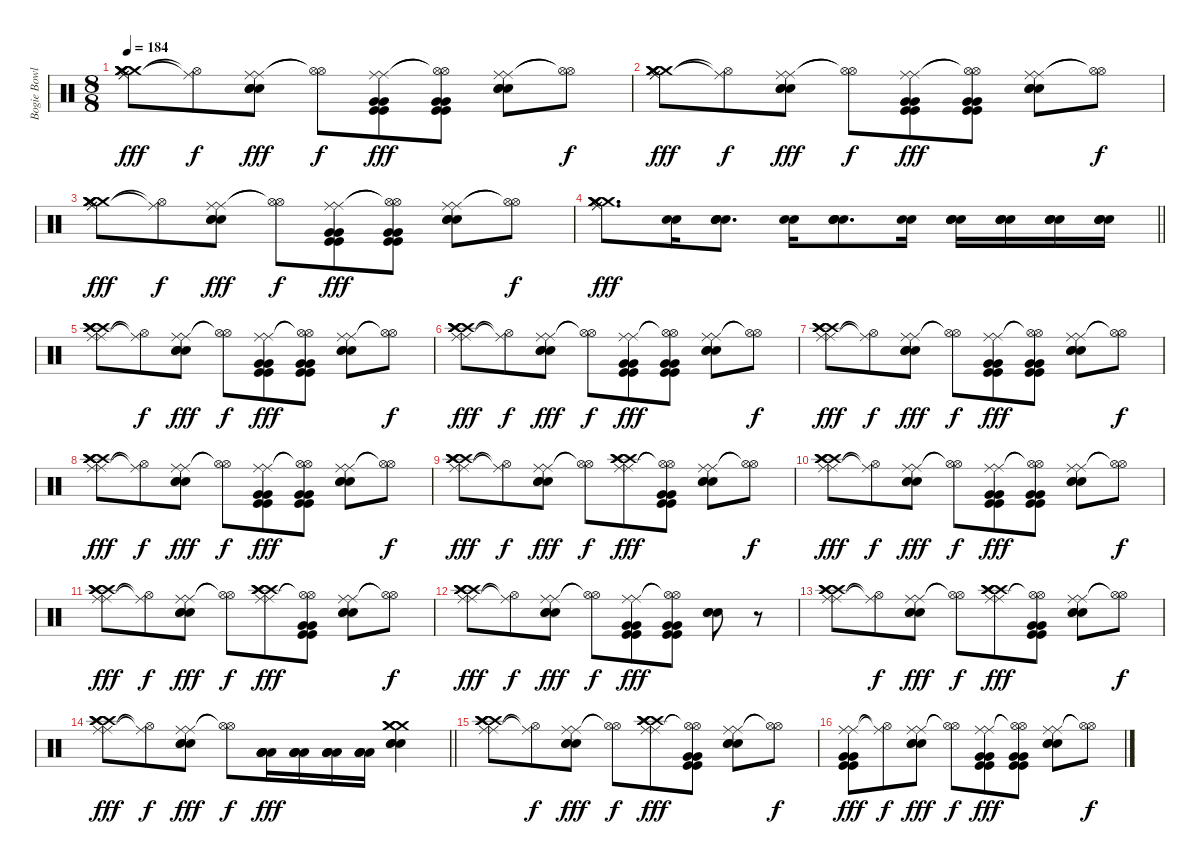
\track ("Bogie Bowles Drums" "Bogie Bowl") {instrument percussion}
\staff {score}
\articulation defaults
\ts (8 8)
\tempo 184
\clef neutral
\ks c
("Ride (middle)" "Ride (middle)" "Crash medium (hit)" "Crash medium (hit)" "Crash medium (hit)" "Crash medium (hit)").8{dy fff} ("Hi-Hat (open)"{t} "Ride (middle)"{t}).8{dy f} ("Ride (middle)" "Ride (middle)" "Snare (hit) 2" "Snare (hit) 2" "Snare (hit) 2").8{dy fff} ("Hi-Hat (open)"{t} "Hi-Hat (open)"{t}).8{dy f} ("Ride (middle)" "Ride (middle)" "Kick (hit)" "Kick (hit)" "Very Low Tom (hit)" "Very Low Tom (hit)").8{dy fff} ("Hi-Hat (open)"{t} "Hi-Hat (open)"{t} "Kick (hit)" "Kick (hit)" "Very Low Tom (hit)" "Very Low Tom (hit)").8 ("Ride (middle)" "Ride (middle)" "Snare (hit) 2" "Snare (hit) 2" "Snare (hit) 2").8 ("Hi-Hat (open)"{t} "Hi-Hat (open)"{t}).8{dy f} |
("Ride (middle)" "Ride (middle)" "Crash medium (hit)" "Crash medium (hit)" "Crash medium (hit)" "Crash medium (hit)").8{dy fff} ("Hi-Hat (open)"{t} "Ride (middle)"{t}).8{dy f} ("Ride (middle)" "Ride (middle)" "Snare (hit) 2" "Snare (hit) 2" "Snare (hit) 2").8{dy fff} ("Hi-Hat (open)"{t} "Hi-Hat (open)"{t}).8{dy f} ("Ride (middle)" "Ride (middle)" "Kick (hit)" "Kick (hit)" "Very Low Tom (hit)" "Very Low Tom (hit)").8{dy fff} ("Hi-Hat (open)"{t} "Hi-Hat (open)"{t} "Kick (hit)" "Kick (hit)" "Very Low Tom (hit)" "Very Low Tom (hit)").8 ("Ride (middle)" "Ride (middle)" "Snare (hit) 2" "Snare (hit) 2" "Snare (hit) 2").8 ("Hi-Hat (open)"{t} "Hi-Hat (open)"{t}).8{dy f} |
("Ride (middle)" "Ride (middle)" "Crash medium (hit)" "Crash medium (hit)" "Crash medium (hit)" "Crash medium (hit)").8{dy fff} ("Hi-Hat (open)"{t} "Ride (middle)"{t}).8{dy f} ("Ride (middle)" "Ride (middle)" "Snare (hit) 2" "Snare (hit) 2" "Snare (hit) 2").8{dy fff} ("Hi-Hat (open)"{t} "Hi-Hat (open)"{t}).8{dy f} ("Ride (middle)" "Ride (middle)" "Kick (hit)" "Kick (hit)" "Very Low Tom (hit)" "Very Low Tom (hit)").8{dy fff} ("Hi-Hat (open)"{t} "Hi-Hat (open)"{t} "Kick (hit)" "Kick (hit)" "Very Low Tom (hit)" "Very Low Tom (hit)").8 ("Ride (middle)" "Ride (middle)" "Snare (hit) 2" "Snare (hit) 2" "Snare (hit) 2").8 ("Hi-Hat (open)"{t} "Hi-Hat (open)"{t}).8{dy f} |
\barLineRight lightlight
("Ride (middle)" "Ride (middle)" "Crash medium (hit)" "Crash medium (hit)" "Crash medium (hit)" "Crash medium (hit)").8{d dy fff} ("Snare (hit) 2" "Snare (hit) 2").16 ("Snare (hit) 2" "Snare (hit) 2" "Snare (hit) 2" "Snare (hit) 2").8{d} ("Snare (hit) 2" "Snare (hit) 2").16 ("Snare (hit) 2" "Snare (hit) 2" "Snare (hit) 2" "Snare (hit) 2").8{d} ("Snare (hit) 2" "Snare (hit) 2").16 ("Snare (hit) 2" "Snare (hit) 2" "Snare (hit) 2" "Snare (hit) 2").16 ("Snare (hit) 2" "Snare (hit) 2" "Snare (hit) 2" "Snare (hit) 2").16 ("Snare (hit) 2" "Snare (hit) 2" "Snare (hit) 2" "Snare (hit) 2").16 ("Snare (hit) 2" "Snare (hit) 2" "Snare (hit) 2" "Snare (hit) 2").16 |
("Ride (middle)" "Ride (middle)" "Crash high (hit)" "Crash high (hit)" "Crash high (hit)" "Crash high (hit)").8 ("Hi-Hat (open)"{t} "Ride (middle)"{t}).8{dy f} ("Ride (middle)" "Ride (middle)" "Snare (hit) 2" "Snare (hit) 2" "Snare (hit) 2").8{dy fff} ("Hi-Hat (open)"{t} "Hi-Hat (open)"{t}).8{dy f} ("Ride (middle)" "Ride (middle)" "Kick (hit)" "Kick (hit)" "Very Low Tom (hit)" "Very Low Tom (hit)").8{dy fff} ("Hi-Hat (open)"{t} "Hi-Hat (open)"{t} "Kick (hit)" "Kick (hit)" "Very Low Tom (hit)" "Very Low Tom (hit)").8 ("Ride (middle)" "Ride (middle)" "Snare (hit) 2" "Snare (hit) 2" "Snare (hit) 2").8 ("Hi-Hat (open)"{t} "Hi-Hat (open)"{t}).8{dy f} |
("Ride (middle)" "Ride (middle)" "Crash high (hit)" "Crash high (hit)" "Crash high (hit)" "Crash high (hit)").8{dy fff} ("Hi-Hat (open)"{t} "Ride (middle)"{t}).8{dy f} ("Ride (middle)" "Ride (middle)" "Snare (hit) 2" "Snare (hit) 2" "Snare (hit) 2").8{dy fff} ("Hi-Hat (open)"{t} "Hi-Hat (open)"{t}).8{dy f} ("Ride (middle)" "Ride (middle)" "Kick (hit)" "Kick (hit)" "Very Low Tom (hit)" "Very Low Tom (hit)").8{dy fff} ("Hi-Hat (open)"{t} "Hi-Hat (open)"{t} "Kick (hit)" "Kick (hit)" "Very Low Tom (hit)" "Very Low Tom (hit)").8 ("Ride (middle)" "Ride (middle)" "Snare (hit) 2" "Snare (hit) 2" "Snare (hit) 2").8 ("Hi-Hat (open)"{t} "Hi-Hat (open)"{t}).8{dy f} |
("Ride (middle)" "Ride (middle)" "Crash high (hit)" "Crash high (hit)" "Crash high (hit)" "Crash high (hit)").8{dy fff} ("Hi-Hat (open)"{t} "Ride (middle)"{t}).8{dy f} ("Ride (middle)" "Ride (middle)" "Snare (hit) 2" "Snare (hit) 2" "Snare (hit) 2").8{dy fff} ("Hi-Hat (open)"{t} "Hi-Hat (open)"{t}).8{dy f} ("Ride (middle)" "Ride (middle)" "Kick (hit)" "Kick (hit)" "Very Low Tom (hit)" "Very Low Tom (hit)").8{dy fff} ("Hi-Hat (open)"{t} "Hi-Hat (open)"{t} "Kick (hit)" "Kick (hit)" "Very Low Tom (hit)" "Very Low Tom (hit)").8 ("Ride (middle)" "Ride (middle)" "Snare (hit) 2" "Snare (hit) 2" "Snare (hit) 2").8 ("Hi-Hat (open)"{t} "Hi-Hat (open)"{t}).8{dy f} |
("Ride (middle)" "Ride (middle)" "Crash high (hit)" "Crash high (hit)" "Crash high (hit)" "Crash high (hit)").8{dy fff} ("Hi-Hat (open)"{t} "Ride (middle)"{t}).8{dy f} ("Ride (middle)" "Ride (middle)" "Snare (hit) 2" "Snare (hit) 2" "Snare (hit) 2").8{dy fff} ("Hi-Hat (open)"{t} "Hi-Hat (open)"{t}).8{dy f} ("Ride (middle)" "Ride (middle)" "Kick (hit)" "Kick (hit)" "Very Low Tom (hit)" "Very Low Tom (hit)").8{dy fff} ("Hi-Hat (open)"{t} "Hi-Hat (open)"{t} "Kick (hit)" "Kick (hit)" "Very Low Tom (hit)" "Very Low Tom (hit)").8 ("Ride (middle)" "Ride (middle)" "Snare (hit) 2" "Snare (hit) 2" "Snare (hit) 2").8 ("Hi-Hat (open)"{t} "Hi-Hat (open)"{t}).8{dy f} |
("Ride (middle)" "Ride (middle)" "Crash high (hit)" "Crash high (hit)" "Crash high (hit)" "Crash high (hit)").8{dy fff} ("Hi-Hat (open)"{t} "Ride (middle)"{t}).8{dy f} ("Ride (middle)" "Ride (middle)" "Snare (hit) 2" "Snare (hit) 2" "Snare (hit) 2").8{dy fff} ("Hi-Hat (open)"{t} "Hi-Hat (open)"{t}).8{dy f} ("Ride (middle)" "Ride (middle)" "Crash high (hit)" "Crash high (hit)" "Crash high (hit)" "Crash high (hit)").8{dy fff} ("Hi-Hat (open)"{t} "Hi-Hat (open)"{t} "Kick (hit)" "Kick (hit)" "Very Low Tom (hit)" "Very Low Tom (hit)").8 ("Ride (middle)" "Ride (middle)" "Snare (hit) 2" "Snare (hit) 2" "Snare (hit) 2").8 ("Hi-Hat (open)"{t} "Hi-Hat (open)"{t}).8{dy f} |
("Ride (middle)" "Ride (middle)" "Crash high (hit)" "Crash high (hit)" "Crash high (hit)" "Crash high (hit)").8{dy fff} ("Hi-Hat (open)"{t} "Ride (middle)"{t}).8{dy f} ("Ride (middle)" "Ride (middle)" "Snare (hit) 2" "Snare (hit) 2" "Snare (hit) 2").8{dy fff} ("Hi-Hat (open)"{t} "Hi-Hat (open)"{t}).8{dy f} ("Ride (middle)" "Ride (middle)" "Kick (hit)" "Kick (hit)" "Very Low Tom (hit)" "Very Low Tom (hit)").8{dy fff} ("Hi-Hat (open)"{t} "Hi-Hat (open)"{t} "Kick (hit)" "Kick (hit)" "Very Low Tom (hit)" "Very Low Tom (hit)").8 ("Ride (middle)" "Ride (middle)" "Snare (hit) 2" "Snare (hit) 2" "Snare (hit) 2").8 ("Hi-Hat (open)"{t} "Hi-Hat (open)"{t}).8{dy f} |
("Ride (middle)" "Ride (middle)" "Crash high (hit)" "Crash high (hit)" "Crash high (hit)" "Crash high (hit)").8{dy fff} ("Hi-Hat (open)"{t} "Ride (middle)"{t}).8{dy f} ("Ride (middle)" "Ride (middle)" "Snare (hit) 2" "Snare (hit) 2" "Snare (hit) 2").8{dy fff} ("Hi-Hat (open)"{t} "Hi-Hat (open)"{t}).8{dy f} ("Ride (middle)" "Ride (middle)" "Crash high (hit)" "Crash high (hit)" "Crash high (hit)" "Crash high (hit)").8{dy fff} ("Hi-Hat (open)"{t} "Hi-Hat (open)"{t} "Kick (hit)" "Kick (hit)" "Very Low Tom (hit)" "Very Low Tom (hit)").8 ("Ride (middle)" "Ride (middle)" "Snare (hit) 2" "Snare (hit) 2" "Snare (hit) 2").8 ("Hi-Hat (open)"{t} "Hi-Hat (open)"{t}).8{dy f} |
("Ride (middle)" "Ride (middle)" "Crash high (hit)" "Crash high (hit)" "Crash high (hit)" "Crash high (hit)").8{dy fff} ("Hi-Hat (open)"{t} "Ride (middle)"{t}).8{dy f} ("Ride (middle)" "Ride (middle)" "Snare (hit) 2" "Snare (hit) 2" "Snare (hit) 2").8{dy fff} ("Hi-Hat (open)"{t} "Hi-Hat (open)"{t}).8{dy f} ("Ride (middle)" "Ride (middle)" "Kick (hit)" "Kick (hit)" "Very Low Tom (hit)" "Very Low Tom (hit)").8{dy fff} ("Hi-Hat (open)"{t} "Hi-Hat (open)"{t} "Kick (hit)" "Kick (hit)" "Very Low Tom (hit)" "Very Low Tom (hit)").8 ("Snare (hit) 2" "Snare (hit) 2" "Snare (hit) 2").8 r.8 |
("Ride (middle)" "Ride (middle)" "Crash high (hit)" "Crash high (hit)" "Crash high (hit)" "Crash high (hit)").8 ("Hi-Hat (open)"{t} "Ride (middle)"{t}).8{dy f} ("Ride (middle)" "Ride (middle)" "Snare (hit) 2" "Snare (hit) 2" "Snare (hit) 2").8{dy fff} ("Hi-Hat (open)"{t} "Hi-Hat (open)"{t}).8{dy f} ("Ride (middle)" "Ride (middle)" "Crash high (hit)" "Crash high (hit)" "Crash high (hit)" "Crash high (hit)").8{dy fff} ("Hi-Hat (open)"{t} "Hi-Hat (open)"{t} "Kick (hit)" "Kick (hit)" "Very Low Tom (hit)" "Very Low Tom (hit)").8 ("Ride (middle)" "Ride (middle)" "Snare (hit) 2" "Snare (hit) 2" "Snare (hit) 2").8 ("Hi-Hat (open)"{t} "Hi-Hat (open)"{t}).8{dy f} |
\barLineRight lightlight
("Ride (middle)" "Ride (middle)" "Crash high (hit)" "Crash high (hit)" "Crash high (hit)" "Crash high (hit)").8{dy fff} ("Hi-Hat (open)"{t} "Ride (middle)"{t}).8{dy f} ("Ride (middle)" "Ride (middle)" "Snare (hit) 2" "Snare (hit) 2" "Snare (hit) 2").8{dy fff} ("Hi-Hat (open)"{t} "Hi-Hat (open)"{t}).8{dy f} ("Low Floor Tom (hit)" "Low Floor Tom (hit)" "Low Floor Tom (hit)" "Low Floor Tom (hit)").16{dy fff} ("Low Floor Tom (hit)" "Low Floor Tom (hit)" "Low Floor Tom (hit)" "Low Floor Tom (hit)").16 ("Low Floor Tom (hit)" "Low Floor Tom (hit)" "Low Floor Tom (hit)" "Low Floor Tom (hit)").16 ("Low Floor Tom (hit)" "Low Floor Tom (hit)" "Low Floor Tom (hit)" "Low Floor Tom (hit)").16 ("Crash medium (hit)" "Crash medium (hit)" "Crash medium (hit)" "Snare (hit) 2" "Snare (hit) 2" "Snare (hit) 2").4 |
("Ride (middle)" "Ride (middle)" "Crash high (hit)" "Crash high (hit)" "Crash high (hit)" "Crash high (hit)").8 ("Hi-Hat (open)"{t} "Ride (middle)"{t}).8{dy f} ("Ride (middle)" "Ride (middle)" "Snare (hit) 2" "Snare (hit) 2" "Snare (hit) 2").8{dy fff} ("Hi-Hat (open)"{t} "Hi-Hat (open)"{t}).8{dy f} ("Ride (middle)" "Ride (middle)" "Crash high (hit)" "Crash high (hit)" "Crash high (hit)" "Crash high (hit)").8{dy fff} ("Hi-Hat (open)"{t} "Hi-Hat (open)"{t} "Kick (hit)" "Kick (hit)" "Very Low Tom (hit)" "Very Low Tom (hit)").8 ("Ride (middle)" "Ride (middle)" "Snare (hit) 2" "Snare (hit) 2" "Snare (hit) 2").8 ("Hi-Hat (open)"{t} "Hi-Hat (open)"{t}).8{dy f} |
("Ride (middle)" "Ride (middle)" "Kick (hit)" "Kick (hit)" "Very Low Tom (hit)" "Very Low Tom (hit)").8{dy fff} ("Hi-Hat (open)"{t} "Ride (middle)"{t}).8{dy f} ("Ride (middle)" "Ride (middle)" "Snare (hit) 2" "Snare (hit) 2" "Snare (hit) 2").8{dy fff} ("Hi-Hat (open)"{t} "Hi-Hat (open)"{t}).8{dy f} ("Ride (middle)" "Ride (middle)" "Kick (hit)" "Kick (hit)" "Very Low Tom (hit)" "Very Low Tom (hit)").8{dy fff} ("Hi-Hat (open)"{t} "Hi-Hat (open)"{t} "Kick (hit)" "Kick (hit)" "Very Low Tom (hit)" "Very Low Tom (hit)").8 ("Ride (middle)" "Ride (middle)" "Snare (hit) 2" "Snare (hit) 2" "Snare (hit) 2").8 ("Hi-Hat (open)"{t} "Hi-Hat (open)"{t}).8{dy f}
